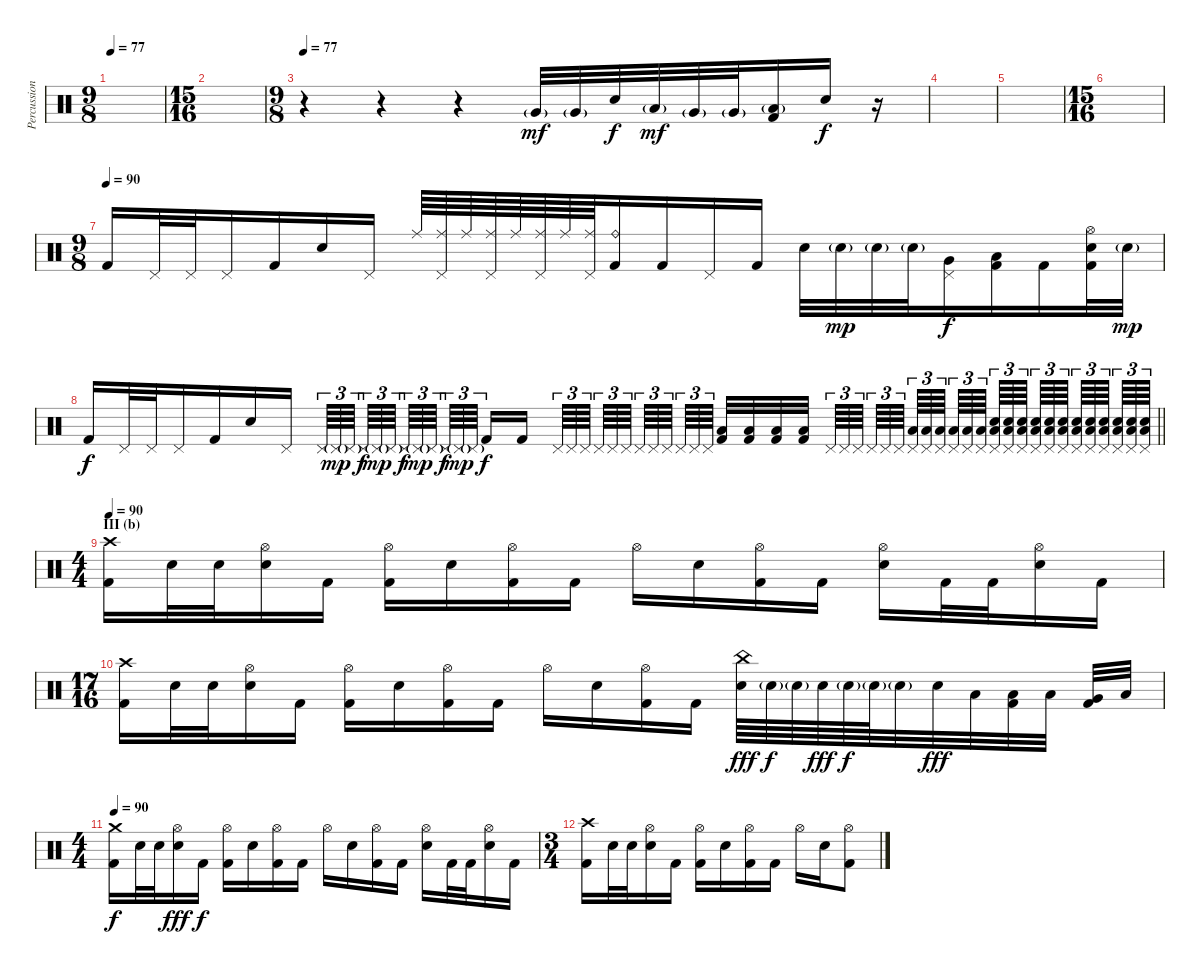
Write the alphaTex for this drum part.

\track ("Percussion" "Percussion") {instrument percussion}
\staff {score}
\articulation defaults
\ts (9 8)
\tempo 77
\clef neutral
\ks c
|
\ts (15 16)
|
\ts (9 8)
\tempo 77
r.4 r.4 r.4 "Very Low Tom (hit)"{g}.32{dy mf volume 13} "Very Low Tom (hit)"{g}.32 "Snare (hit) 2".32{dy f} "Low Tom (hit)"{g}.32{dy mf} "Very Low Tom (hit)"{g}.32 "Very Low Tom (hit)"{g}.32 ("Low Floor Tom (hit)"{g} "Kick (hit) 2").16 "Snare (hit) 2".16{dy f} r.16{volume 0} |
|
|
\ts (15 16)
|
\ts (9 8)
\tempo (90)
"Kick (hit) 2".16{volume 13} "Pedal Hi-Hat (hit)".32 "Pedal Hi-Hat (hit)".32 "Pedal Hi-Hat (hit)".16 "Kick (hit) 2".16 "Snare (hit) 2".16 "Pedal Hi-Hat (hit)".16 "Ride (middle)".64 ("Ride (middle)" "Pedal Hi-Hat (hit)").64 "Ride (middle)".64 ("Ride (middle)" "Pedal Hi-Hat (hit)").64 "Ride (middle)".64 ("Ride (middle)" "Pedal Hi-Hat (hit)").64 "Ride (middle)".64 ("Ride (middle)" "Pedal Hi-Hat (hit)").64 ("Ride (bell)" "Kick (hit) 2").16 "Kick (hit) 2".16 "Pedal Hi-Hat (hit)".16 "Kick (hit) 2".16 "Snare (hit) 2".32 "Snare (hit) 2"{g}.32{dy mp} "Snare (hit) 2"{g}.32 "Snare (hit) 2"{g}.32 ("Very Low Tom (hit)" "Pedal Hi-Hat (hit)").16{dy f} ("Low Floor Tom (hit)" "Kick (hit) 2").16 "Kick (hit) 2".16 ("Hi-Hat (open)" "Snare (hit) 2" "Kick (hit) 2").32 "Snare (hit) 2"{g}.32{dy mp} |
\barLineRight lightlight "Kick (hit) 2".16{dy f} "Pedal Hi-Hat (hit)".32 "Pedal Hi-Hat (hit)".32 "Pedal Hi-Hat (hit)".16 "Kick (hit) 2".16 "Snare (hit) 2".16 "Pedal Hi-Hat (hit)".16 "Pedal Hi-Hat (hit)".64{tu (3 2)} "Pedal Hi-Hat (hit)"{g}.64{tu (3 2) dy mp} "Pedal Hi-Hat (hit)"{g}.64{tu (3 2)} "Pedal Hi-Hat (hit)".64{tu (3 2) dy f} "Pedal Hi-Hat (hit)"{g}.64{tu (3 2) dy mp} "Pedal Hi-Hat (hit)"{g}.64{tu (3 2)} "Pedal Hi-Hat (hit)".64{tu (3 2) dy f} "Pedal Hi-Hat (hit)"{g}.64{tu (3 2) dy mp} "Pedal Hi-Hat (hit)"{g}.64{tu (3 2)} "Pedal Hi-Hat (hit)".64{tu (3 2) dy f} "Pedal Hi-Hat (hit)"{g}.64{tu (3 2) dy mp} "Pedal Hi-Hat (hit)"{g}.64{tu (3 2)} "Kick (hit) 2".16{dy f} "Kick (hit) 2".16 "Pedal Hi-Hat (hit)".64{tu (3 2)} "Pedal Hi-Hat (hit)".64{tu (3 2)} "Pedal Hi-Hat (hit)".64{tu (3 2)} "Pedal Hi-Hat (hit)".64{tu (3 2)} "Pedal Hi-Hat (hit)".64{tu (3 2)} "Pedal Hi-Hat (hit)".64{tu (3 2)} "Pedal Hi-Hat (hit)".64{tu (3 2)} "Pedal Hi-Hat (hit)".64{tu (3 2)} "Pedal Hi-Hat (hit)".64{tu (3 2)} "Pedal Hi-Hat (hit)".64{tu (3 2)} "Pedal Hi-Hat (hit)".64{tu (3 2)} "Pedal Hi-Hat (hit)".64{tu (3 2)}
("Low Floor Tom (hit)" "Kick (hit) 2").32 ("Low Floor Tom (hit)" "Kick (hit) 2").32 ("Low Floor Tom (hit)" "Kick (hit) 2").32 ("Low Floor Tom (hit)" "Kick (hit) 2").32 "Pedal Hi-Hat (hit)".64{tu (3 2)} "Pedal Hi-Hat (hit)".64{tu (3 2)} "Pedal Hi-Hat (hit)".64{tu (3 2)} "Pedal Hi-Hat (hit)".64{tu (3 2)} "Pedal Hi-Hat (hit)".64{tu (3 2)} "Pedal Hi-Hat (hit)".64{tu (3 2)} ("Pedal Hi-Hat (hit)" "Low Floor Tom (hit)").64{tu (3 2)} ("Pedal Hi-Hat (hit)" "Low Floor Tom (hit)").64{tu (3 2)} ("Pedal Hi-Hat (hit)" "Low Floor Tom (hit)").64{tu (3 2)} ("Pedal Hi-Hat (hit)" "Low Floor Tom (hit)").64{tu (3 2)} ("Pedal Hi-Hat (hit)" "Low Floor Tom (hit)").64{tu (3 2)} ("Pedal Hi-Hat (hit)" "Low Floor Tom (hit)").64{tu (3 2)} ("Snare (hit) 2" "Pedal Hi-Hat (hit)" "Low Floor Tom (hit)").64{tu (3 2)} ("Snare (hit) 2" "Pedal Hi-Hat (hit)" "Low Floor Tom (hit)").64{tu (3 2)} ("Snare (hit) 2" "Pedal Hi-Hat (hit)" "Low Floor Tom (hit)").64{tu (3 2)} ("Snare (hit) 2" "Pedal Hi-Hat (hit)" "Low Floor Tom (hit)").64{tu (3 2)} ("Snare (hit) 2" "Pedal Hi-Hat (hit)" "Low Floor Tom (hit)").64{tu (3 2)} ("Snare (hit) 2" "Pedal Hi-Hat (hit)" "Low Floor Tom (hit)").64{tu (3 2)} ("Snare (hit) 2" "Pedal Hi-Hat (hit)" "Low Floor Tom (hit)").64{tu (3 2)} ("Snare (hit) 2" "Pedal Hi-Hat (hit)" "Low Floor Tom (hit)").64{tu (3 2)} ("Snare (hit) 2" "Pedal Hi-Hat (hit)" "Low Floor Tom (hit)").64{tu (3 2)} ("Snare (hit) 2" "Pedal Hi-Hat (hit)" "Low Floor Tom (hit)").64{tu (3 2)} ("Snare (hit) 2" "Pedal Hi-Hat (hit)" "Low Floor Tom (hit)").64{tu (3 2)} ("Snare (hit) 2" "Pedal Hi-Hat (hit)" "Low Floor Tom (hit)").64{tu (3 2)} |
\ts (4 4)
\section ("" "III (b)")
\tempo 90
("Crash high (hit)" "Kick (hit) 2").16 "Snare (hit) 2".32 "Snare (hit) 2".32 ("Hi-Hat (open)" "Snare (hit) 2").16 "Kick (hit) 2".16 ("Hi-Hat (open)" "Kick (hit) 2").16 "Snare (hit) 2".16 ("Hi-Hat (open)" "Kick (hit) 2").16 "Kick (hit) 2".16 "Hi-Hat (open)".16 "Snare (hit) 2".16 ("Hi-Hat (open)" "Kick (hit) 2").16 "Kick (hit) 2".16 ("Hi-Hat (open)" "Snare (hit) 2").16 "Kick (hit) 2".32 "Kick (hit) 2".32 ("Hi-Hat (open)" "Snare (hit) 2").16 "Kick (hit) 2".16 |
\ts (17 16)
("Crash high (hit)" "Kick (hit) 2").16 "Snare (hit) 2".32 "Snare (hit) 2".32 ("Hi-Hat (open)" "Snare (hit) 2").16 "Kick (hit) 2".16 ("Hi-Hat (open)" "Kick (hit) 2").16 "Snare (hit) 2".16 ("Hi-Hat (open)" "Kick (hit) 2").16 "Kick (hit) 2".16 "Hi-Hat (open)".16 "Snare (hit) 2".16 ("Hi-Hat (open)" "Kick (hit) 2").16 "Kick (hit) 2".16 ("China (hit)" "Snare (hit) 2").64{dy fff} "Snare (hit) 2"{g}.64{dy f} "Snare (hit) 2"{g}.64 "Snare (hit) 2".64{dy fff} "Snare (hit) 2"{g}.64{dy f} "Snare (hit) 2"{g}.64 "Snare (hit) 2"{g}.32 "Snare (hit) 2".32{dy fff} "Low Tom (hit)".32 ("Low Tom (hit)" "Kick (hit) 2").32 "Low Tom (hit)".32 ("Very Low Tom (hit)" "Kick (hit) 2").32 "Low Floor Tom (hit)".32 |
\ts (4 4)
\tempo 90
("Crash medium (hit)" "Kick (hit) 2").16{dy f} "Snare (hit) 2".32 "Snare (hit) 2".32 ("Hi-Hat (open)" "Snare (hit) 2").16{dy fff} "Kick (hit) 2".16{dy f} ("Hi-Hat (open)" "Kick (hit) 2").16 "Snare (hit) 2".16 ("Hi-Hat (open)" "Kick (hit) 2").16 "Kick (hit) 2".16 "Hi-Hat (open)".16 "Snare (hit) 2".16 ("Hi-Hat (open)" "Kick (hit) 2").16 "Kick (hit) 2".16 ("Hi-Hat (open)" "Snare (hit) 2").16 "Kick (hit) 2".32 "Kick (hit) 2".32 ("Hi-Hat (open)" "Snare (hit) 2").16 "Kick (hit) 2".16 |
\ts (3 4)
("Crash high (hit)" "Kick (hit) 2").16 "Snare (hit) 2".32 "Snare (hit) 2".32 ("Hi-Hat (open)" "Snare (hit) 2").16 "Kick (hit) 2".16 ("Hi-Hat (open)" "Kick (hit) 2").16 "Snare (hit) 2".16 ("Hi-Hat (open)" "Kick (hit) 2").16 "Kick (hit) 2".16 "Hi-Hat (open)".16 "Snare (hit) 2".16 ("Hi-Hat (open)" "Kick (hit) 2").8
